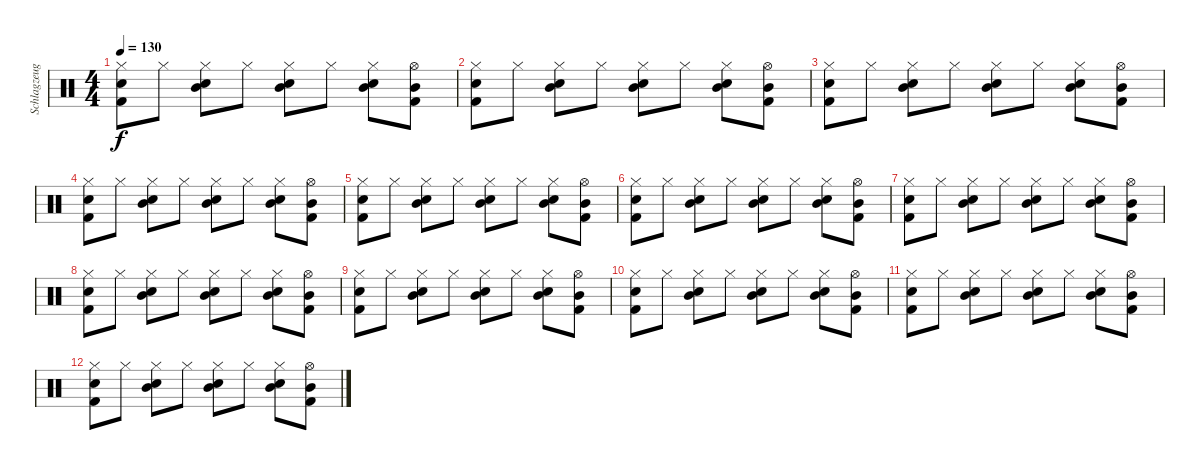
\track ("Schlagzeug" "Schlagzeug") {instrument percussion}
\staff {score}
\articulation defaults
\ts (4 4)
\tempo 130
\clef neutral
\ks c
("Hi-Hat (closed)" "Snare (hit) 2" "Kick (hit) 2").8{dy f} "Hi-Hat (closed)".8 ("Hi-Hat (closed)" "Mid Tom (hit)" "Snare (hit) 2").8 "Hi-Hat (closed)".8 ("Hi-Hat (closed)" "Mid Tom (hit)" "Snare (hit) 2").8 "Hi-Hat (closed)".8 ("Hi-Hat (closed)" "Mid Tom (hit)" "Snare (hit) 2").8 ("Hi-Hat (open)" "Mid Tom (hit)" "Kick (hit) 2").8 |
("Hi-Hat (closed)" "Snare (hit) 2" "Kick (hit) 2").8 "Hi-Hat (closed)".8 ("Hi-Hat (closed)" "Mid Tom (hit)" "Snare (hit) 2").8 "Hi-Hat (closed)".8 ("Hi-Hat (closed)" "Mid Tom (hit)" "Snare (hit) 2").8 "Hi-Hat (closed)".8 ("Hi-Hat (closed)" "Mid Tom (hit)" "Snare (hit) 2").8 ("Hi-Hat (open)" "Mid Tom (hit)" "Kick (hit) 2").8 |
("Hi-Hat (closed)" "Snare (hit) 2" "Kick (hit) 2").8 "Hi-Hat (closed)".8 ("Hi-Hat (closed)" "Mid Tom (hit)" "Snare (hit) 2").8 "Hi-Hat (closed)".8 ("Hi-Hat (closed)" "Mid Tom (hit)" "Snare (hit) 2").8 "Hi-Hat (closed)".8 ("Hi-Hat (closed)" "Mid Tom (hit)" "Snare (hit) 2").8 ("Hi-Hat (open)" "Mid Tom (hit)" "Kick (hit) 2").8 |
("Hi-Hat (closed)" "Snare (hit) 2" "Kick (hit) 2").8 "Hi-Hat (closed)".8 ("Hi-Hat (closed)" "Mid Tom (hit)" "Snare (hit) 2").8 "Hi-Hat (closed)".8 ("Hi-Hat (closed)" "Mid Tom (hit)" "Snare (hit) 2").8 "Hi-Hat (closed)".8 ("Hi-Hat (closed)" "Mid Tom (hit)" "Snare (hit) 2").8 ("Hi-Hat (open)" "Mid Tom (hit)" "Kick (hit) 2").8 |
("Hi-Hat (closed)" "Snare (hit) 2" "Kick (hit) 2").8 "Hi-Hat (closed)".8 ("Hi-Hat (closed)" "Mid Tom (hit)" "Snare (hit) 2").8 "Hi-Hat (closed)".8 ("Hi-Hat (closed)" "Mid Tom (hit)" "Snare (hit) 2").8 "Hi-Hat (closed)".8 ("Hi-Hat (closed)" "Mid Tom (hit)" "Snare (hit) 2").8 ("Hi-Hat (open)" "Mid Tom (hit)" "Kick (hit) 2").8 |
("Hi-Hat (closed)" "Snare (hit) 2" "Kick (hit) 2").8 "Hi-Hat (closed)".8 ("Hi-Hat (closed)" "Mid Tom (hit)" "Snare (hit) 2").8 "Hi-Hat (closed)".8 ("Hi-Hat (closed)" "Mid Tom (hit)" "Snare (hit) 2").8 "Hi-Hat (closed)".8 ("Hi-Hat (closed)" "Mid Tom (hit)" "Snare (hit) 2").8 ("Hi-Hat (open)" "Mid Tom (hit)" "Kick (hit) 2").8 |
("Hi-Hat (closed)" "Snare (hit) 2" "Kick (hit) 2").8 "Hi-Hat (closed)".8 ("Hi-Hat (closed)" "Mid Tom (hit)" "Snare (hit) 2").8 "Hi-Hat (closed)".8 ("Hi-Hat (closed)" "Mid Tom (hit)" "Snare (hit) 2").8 "Hi-Hat (closed)".8 ("Hi-Hat (closed)" "Mid Tom (hit)" "Snare (hit) 2").8 ("Hi-Hat (open)" "Mid Tom (hit)" "Kick (hit) 2").8 |
("Hi-Hat (closed)" "Snare (hit) 2" "Kick (hit) 2").8 "Hi-Hat (closed)".8 ("Hi-Hat (closed)" "Mid Tom (hit)" "Snare (hit) 2").8 "Hi-Hat (closed)".8 ("Hi-Hat (closed)" "Mid Tom (hit)" "Snare (hit) 2").8 "Hi-Hat (closed)".8 ("Hi-Hat (closed)" "Mid Tom (hit)" "Snare (hit) 2").8 ("Hi-Hat (open)" "Mid Tom (hit)" "Kick (hit) 2").8 |
("Hi-Hat (closed)" "Snare (hit) 2" "Kick (hit) 2").8 "Hi-Hat (closed)".8 ("Hi-Hat (closed)" "Mid Tom (hit)" "Snare (hit) 2").8 "Hi-Hat (closed)".8 ("Hi-Hat (closed)" "Mid Tom (hit)" "Snare (hit) 2").8 "Hi-Hat (closed)".8 ("Hi-Hat (closed)" "Mid Tom (hit)" "Snare (hit) 2").8 ("Hi-Hat (open)" "Mid Tom (hit)" "Kick (hit) 2").8 |
("Hi-Hat (closed)" "Snare (hit) 2" "Kick (hit) 2").8 "Hi-Hat (closed)".8 ("Hi-Hat (closed)" "Mid Tom (hit)" "Snare (hit) 2").8 "Hi-Hat (closed)".8 ("Hi-Hat (closed)" "Mid Tom (hit)" "Snare (hit) 2").8 "Hi-Hat (closed)".8 ("Hi-Hat (closed)" "Mid Tom (hit)" "Snare (hit) 2").8 ("Hi-Hat (open)" "Mid Tom (hit)" "Kick (hit) 2").8 |
("Hi-Hat (closed)" "Snare (hit) 2" "Kick (hit) 2").8 "Hi-Hat (closed)".8 ("Hi-Hat (closed)" "Mid Tom (hit)" "Snare (hit) 2").8 "Hi-Hat (closed)".8 ("Hi-Hat (closed)" "Mid Tom (hit)" "Snare (hit) 2").8 "Hi-Hat (closed)".8 ("Hi-Hat (closed)" "Mid Tom (hit)" "Snare (hit) 2").8 ("Hi-Hat (open)" "Mid Tom (hit)" "Kick (hit) 2").8 |
("Hi-Hat (closed)" "Snare (hit) 2" "Kick (hit) 2").8 "Hi-Hat (closed)".8 ("Hi-Hat (closed)" "Mid Tom (hit)" "Snare (hit) 2").8 "Hi-Hat (closed)".8 ("Hi-Hat (closed)" "Mid Tom (hit)" "Snare (hit) 2").8 "Hi-Hat (closed)".8 ("Hi-Hat (closed)" "Mid Tom (hit)" "Snare (hit) 2").8 ("Hi-Hat (open)" "Mid Tom (hit)" "Kick (hit) 2").8
